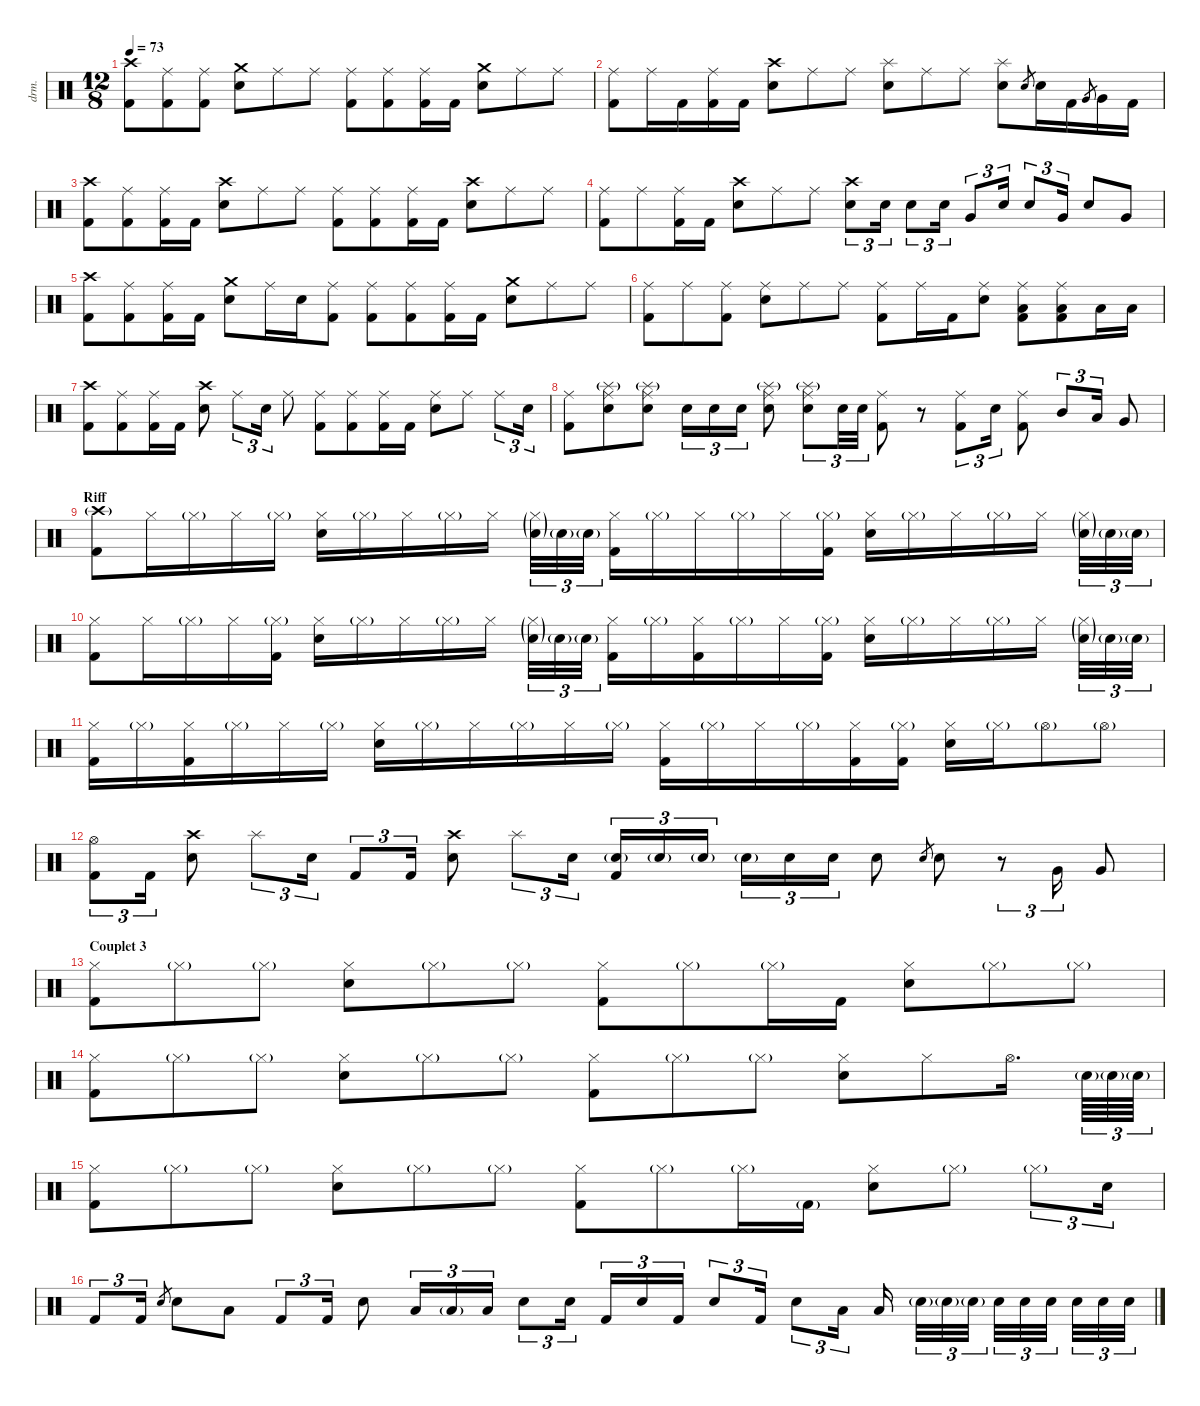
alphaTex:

\defaultSystemsLayout 4
\hideDynamics
\bracketExtendMode nobrackets
\otherSystemsTrackNameOrientation horizontal
\track ("Drums" "drm.") {instrument percussion}
\staff {score}
\articulation defaults
\ts (12 8)
\tempo 73
\clef neutral
\ks c
("Crash high (hit)" "Kick (hit) 2").8{dy f beam Down} ("Ride (middle)" "Kick (hit) 2").8{beam Down} ("Ride (middle)" "Kick (hit) 2").8{beam Down} ("Crash medium (hit)" "Snare (hit) 2").8{beam Down} "Ride (middle)".8{beam Down} "Ride (middle)".8{beam Down} ("Ride (middle)" "Kick (hit) 2").8{beam Down} ("Ride (middle)" "Kick (hit) 2").8{beam Down} ("Ride (middle)" "Kick (hit) 2").16{beam Down} "Kick (hit) 2".16{beam Down} ("Crash medium (hit)" "Snare (hit) 2").8{beam Down} "Ride (middle)".8{beam Down} "Ride (middle)".8{beam Down} |
("Ride (middle)" "Kick (hit) 2").8{beam Down} "Ride (middle)".16{beam Down} "Kick (hit) 2".16{beam Down} ("Ride (middle)" "Kick (hit) 2").16{beam Down} "Kick (hit) 2".16{beam Down} ("Snare (hit) 2" "Crash high (hit)").8{beam Down} "Ride (middle)".8{beam Down} "Ride (middle)".8{beam Down} ("Splash (hit)" "Snare (hit) 2").8{beam Down} "Ride (middle)".8{beam Down} "Ride (middle)".8{beam Down} ("Splash (hit)" "Snare (hit) 2").8{beam Down} "Electric Snare (hit)".8{gr dy mf beam Up} "Snare (hit) 2".16{dy f beam Down} "Kick (hit) 2".16{beam Down} "Very Low Tom (hit)".8{gr dy mf beam Up} "Very Low Tom (hit)".16{dy f beam Down} "Kick (hit) 2".16{beam Down} |
("Crash high (hit)" "Kick (hit) 2").8{beam Down} ("Ride (middle)" "Kick (hit) 2").8{beam Down} ("Ride (middle)" "Kick (hit) 2").16{beam Down} "Kick (hit) 2".16{beam Down} ("Snare (hit) 2" "Crash high (hit)").8{beam Down} "Ride (middle)".8{beam Down} "Ride (middle)".8{beam Down} ("Ride (middle)" "Kick (hit) 2").8{beam Down} ("Ride (middle)" "Kick (hit) 2").8{beam Down} ("Ride (middle)" "Kick (hit) 2").16{beam Down} "Kick (hit) 2".16{beam Down} ("Snare (hit) 2" "Crash high (hit)").8{beam Down} "Ride (middle)".8{beam Down} "Ride (middle)".8{beam Down} |
("Ride (middle)" "Kick (hit) 2").8{beam Down} "Ride (middle)".8{beam Down} ("Ride (middle)" "Kick (hit) 2").16{beam Down} "Kick (hit) 2".16{beam Down} ("Snare (hit) 2" "Crash high (hit)").8{beam Down} "Ride (middle)".8{beam Down} "Ride (middle)".8{beam Down} ("Snare (hit) 2" "Crash high (hit)").8{tu (3 2) beam Down} "Snare (hit) 2".16{tu (3 2) beam Down} "Snare (hit) 2".8{tu (3 2) beam Down} "Snare (hit) 2".16{tu (3 2) beam Down} "Very Low Tom (hit)".8{tu (3 2) beam Up} "Snare (hit) 2".16{tu (3 2) beam Up} "Snare (hit) 2".8{tu (3 2) beam Up} "Very Low Tom (hit)".16{tu (3 2) beam Up} "Snare (hit) 2".8{beam Up} "Very Low Tom (hit)".8{beam Up} |
("Crash high (hit)" "Kick (hit) 2").8{beam Down} ("Ride (middle)" "Kick (hit) 2").8{beam Down} ("Ride (middle)" "Kick (hit) 2").16{beam Down} "Kick (hit) 2".16{beam Down} ("Crash medium (hit)" "Snare (hit) 2").8{beam Down} "Ride (middle)".16{beam Down} "Snare (hit) 2".16{beam Down} ("Ride (middle)" "Kick (hit) 2").8{beam Down} ("Ride (middle)" "Kick (hit) 2").8{beam Down} ("Ride (middle)" "Kick (hit) 2").8{beam Down} ("Ride (middle)" "Kick (hit) 2").16{beam Down} "Kick (hit) 2".16{beam Down} ("Crash medium (hit)" "Snare (hit) 2").8{beam Down} "Ride (middle)".8{beam Down} "Ride (middle)".8{beam Down} |
("Ride (middle)" "Kick (hit) 2").8{beam Down} "Ride (middle)".8{beam Down} ("Ride (middle)" "Kick (hit) 2").8{beam Down} ("Snare (hit) 2" "Ride (middle)").8{beam Down} "Ride (middle)".8{beam Down} "Ride (middle)".8{beam Down} ("Ride (middle)" "Kick (hit) 2").8{beam Down} "Ride (middle)".16{beam Down} "Kick (hit) 2".16{beam Down} ("Snare (hit) 2" "Ride (middle)").8{beam Down} ("Low Tom (hit)" "Ride (middle)" "Kick (hit) 2").8{beam Down} ("Low Tom (hit)" "Ride (middle)" "Kick (hit) 2").8{beam Down} "Low Tom (hit)".16{beam Down} "Low Tom (hit)".16{beam Down} |
("Crash high (hit)" "Kick (hit) 2").8{beam Down} ("Ride (middle)" "Kick (hit) 2").8{beam Down} ("Ride (middle)" "Kick (hit) 2").16{beam Down} "Kick (hit) 2".16{beam Down} ("Snare (hit) 2" "Crash high (hit)").8{beam Down} "Ride (middle)".8{tu (3 2) beam Down} "Snare (hit) 2".16{tu (3 2) beam Down} "Ride (middle)".8{beam Down} ("Ride (middle)" "Kick (hit) 2").8{beam Down} ("Ride (middle)" "Kick (hit) 2").8{beam Down} ("Ride (middle)" "Kick (hit) 2").16{beam Down} "Kick (hit) 2".16{beam Down} ("Snare (hit) 2" "Ride (middle)").8{beam Down} "Ride (middle)".8{beam Down} "Ride (middle)".8{tu (3 2) beam Down} "Snare (hit) 2".16{tu (3 2) beam Down} |
("Ride (middle)" "Kick (hit) 2").8{beam Down} ("Snare (hit) 2" "Ride (middle)" "Splash (hit)"{g}).8{beam Down} ("Snare (hit) 2" "Ride (middle)" "Splash (hit)"{g}).8{beam Down} "Snare (hit) 2".16{tu (3 2) beam Down} "Snare (hit) 2".16{tu (3 2) beam Down} "Snare (hit) 2".16{tu (3 2) beam Down} ("Snare (hit) 2" "Ride (middle)" "Splash (hit)"{g}).8{beam Down} ("Snare (hit) 2" "Ride (middle)" "Splash (hit)"{g}).8{tu (3 2) beam Down} "Snare (hit) 2".32{tu (3 2) beam Down} "Snare (hit) 2".32{tu (3 2) beam Down} ("Ride (middle)" "Kick (hit) 2").8{beam Down} r.8{beam Down} ("Ride (middle)" "Kick (hit) 2").8{tu (3 2) beam Down} "Snare (hit) 2".16{tu (3 2) beam Down} ("Ride (middle)" "Kick (hit) 2").8{beam Down} "Mid Tom (hit)".8{tu (3 2) beam Up} "Low Tom (hit)".16{tu (3 2) beam Up} "Very Low Tom (hit)".8{beam Up} |
\section ("" "Riff")
("Crash high (hit)"{g} "Kick (hit) 2").8{beam Down} "Hi-Hat (closed)".16{beam Down} "Hi-Hat (closed)"{g}.16{beam Down} "Hi-Hat (closed)".16{beam Down} "Hi-Hat (closed)"{g}.16{beam Down} ("Hi-Hat (closed)" "Snare (hit) 2").16{beam Down} "Hi-Hat (closed)"{g}.16{beam Down} "Hi-Hat (closed)".16{beam Down} "Hi-Hat (closed)"{g}.16{beam Down} "Hi-Hat (closed)".16{beam Down} ("Hi-Hat (closed)"{g} "Snare (hit) 2"{g}).32{tu (3 2) beam Down} "Snare (hit) 2"{g}.32{tu (3 2) beam Down} "Snare (hit) 2"{g}.32{tu (3 2) beam Down} ("Hi-Hat (closed)" "Kick (hit) 2").16{beam Down} "Hi-Hat (closed)"{g}.16{beam Down} "Hi-Hat (closed)".16{beam Down} "Hi-Hat (closed)"{g}.16{beam Down} "Hi-Hat (closed)".16{beam Down} ("Hi-Hat (closed)"{g} "Kick (hit) 2").16{beam Down} ("Hi-Hat (closed)" "Snare (hit) 2").16{beam Down} "Hi-Hat (closed)"{g}.16{beam Down} "Hi-Hat (closed)".16{beam Down} "Hi-Hat (closed)"{g}.16{beam Down} "Hi-Hat (closed)".16{beam Down} ("Hi-Hat (closed)"{g} "Snare (hit) 2"{g}).32{tu (3 2) beam Down} "Snare (hit) 2"{g}.32{tu (3 2) beam Down} "Snare (hit) 2"{g}.32{tu (3 2) beam Down} |
("Hi-Hat (closed)" "Kick (hit) 2").8{beam Down} "Hi-Hat (closed)".16{beam Down} "Hi-Hat (closed)"{g}.16{beam Down} "Hi-Hat (closed)".16{beam Down} ("Hi-Hat (closed)"{g} "Kick (hit) 2").16{beam Down} ("Hi-Hat (closed)" "Snare (hit) 2").16{beam Down} "Hi-Hat (closed)"{g}.16{beam Down} "Hi-Hat (closed)".16{beam Down} "Hi-Hat (closed)"{g}.16{beam Down} "Hi-Hat (closed)".16{beam Down} ("Hi-Hat (closed)"{g} "Snare (hit) 2"{g}).32{tu (3 2) beam Down} "Snare (hit) 2"{g}.32{tu (3 2) beam Down} "Snare (hit) 2"{g}.32{tu (3 2) beam Down} ("Hi-Hat (closed)" "Kick (hit) 2").16{beam Down} "Hi-Hat (closed)"{g}.16{beam Down} ("Hi-Hat (closed)" "Kick (hit) 2").16{beam Down} "Hi-Hat (closed)"{g}.16{beam Down} "Hi-Hat (closed)".16{beam Down} ("Hi-Hat (closed)"{g} "Kick (hit) 2").16{beam Down} ("Hi-Hat (closed)" "Snare (hit) 2").16{beam Down} "Hi-Hat (closed)"{g}.16{beam Down} "Hi-Hat (closed)".16{beam Down} "Hi-Hat (closed)"{g}.16{beam Down} "Hi-Hat (closed)".16{beam Down} ("Hi-Hat (closed)"{g} "Snare (hit) 2"{g}).32{tu (3 2) beam Down} "Snare (hit) 2"{g}.32{tu (3 2) beam Down} "Snare (hit) 2"{g}.32{tu (3 2) beam Down} |
("Hi-Hat (closed)" "Kick (hit) 2").16{beam Down} "Hi-Hat (closed)"{g}.16{beam Down} ("Hi-Hat (closed)" "Kick (hit) 2").16{beam Down} "Hi-Hat (closed)"{g}.16{beam Down} "Hi-Hat (closed)".16{beam Down} "Hi-Hat (closed)"{g}.16{beam Down} ("Hi-Hat (closed)" "Snare (hit) 2").16{beam Down} "Hi-Hat (closed)"{g}.16{beam Down} "Hi-Hat (closed)".16{beam Down} "Hi-Hat (closed)"{g}.16{beam Down} "Hi-Hat (closed)".16{beam Down} "Hi-Hat (closed)"{g}.16{beam Down} ("Hi-Hat (closed)" "Kick (hit) 2").16{beam Down} "Hi-Hat (closed)"{g}.16{beam Down} "Hi-Hat (closed)".16{beam Down} "Hi-Hat (closed)"{g}.16{beam Down} ("Hi-Hat (closed)" "Kick (hit) 2").16{beam Down} ("Hi-Hat (closed)"{g} "Kick (hit) 2").16{beam Down} ("Hi-Hat (closed)" "Snare (hit) 2").16{beam Down} "Hi-Hat (closed)"{g}.16{beam Down} "Hi-Hat (open)"{g}.8{beam Down} "Hi-Hat (open)"{g}.8{beam Down} |
("Hi-Hat (open)" "Kick (hit) 2").8{tu (3 2) beam Down} "Kick (hit) 2".16{tu (3 2) beam Down} ("Crash high (hit)" "Snare (hit) 2").8{beam Down} "Splash (hit)".8{tu (3 2) beam Down} "Snare (hit) 2".16{tu (3 2) beam Down} "Kick (hit) 2".8{tu (3 2) beam Up} "Kick (hit) 2".16{tu (3 2) beam Up} ("Crash high (hit)" "Snare (hit) 2").8{beam Down} "Splash (hit)".8{tu (3 2) beam Down} "Snare (hit) 2".16{tu (3 2) beam Down} ("Snare (hit) 2"{g} "Kick (hit) 2").16{tu (3 2) beam Up} "Snare (hit) 2"{g}.16{tu (3 2) dy mf beam Up} "Snare (hit) 2"{g}.16{tu (3 2) dy f beam Up} "Snare (hit) 2"{g}.16{tu (3 2) beam Down} "Snare (hit) 2".16{tu (3 2) dy mf beam Down} "Snare (hit) 2".16{tu (3 2) dy f beam Down} "Snare (hit) 2".8{beam Down} "Electric Snare (hit)".8{gr dy mf beam Up} "Snare (hit) 2".8{dy f beam Down} r.8{tu (3 2) beam Down} "Very Low Tom (hit)".16{tu (3 2) beam Up} "Very Low Tom (hit)".8{beam Up} |
\section ("" "Couplet 3")
("Hi-Hat (closed)" "Kick (hit) 2").8{beam Down} "Hi-Hat (closed)"{g}.8{beam Down} "Hi-Hat (closed)"{g}.8{beam Down} ("Hi-Hat (closed)" "Snare (hit) 2").8{beam Down} "Hi-Hat (closed)"{g}.8{beam Down} "Hi-Hat (closed)"{g}.8{beam Down} ("Hi-Hat (closed)" "Kick (hit) 2").8{beam Down} "Hi-Hat (closed)"{g}.8{beam Down} "Hi-Hat (closed)"{g}.16{beam Down} "Kick (hit) 2".16{beam Down} ("Hi-Hat (closed)" "Snare (hit) 2").8{beam Down} "Hi-Hat (closed)"{g}.8{beam Down} "Hi-Hat (closed)"{g}.8{beam Down} |
("Hi-Hat (closed)" "Kick (hit) 2").8{beam Down} "Hi-Hat (closed)"{g}.8{beam Down} "Hi-Hat (closed)"{g}.8{beam Down} ("Hi-Hat (closed)" "Snare (hit) 2").8{beam Down} "Hi-Hat (closed)"{g}.8{beam Down} "Hi-Hat (closed)"{g}.8{beam Down} ("Hi-Hat (closed)" "Kick (hit) 2").8{beam Down} "Hi-Hat (closed)"{g}.8{beam Down} "Hi-Hat (closed)"{g}.8{beam Down} ("Hi-Hat (closed)" "Snare (hit) 2").8{beam Down} "Hi-Hat (closed)".8{beam Down} "Hi-Hat (open)".16{d beam Down} "Snare (hit) 2"{g}.64{tu (3 2) beam Down} "Snare (hit) 2"{g}.64{tu (3 2) beam Down} "Snare (hit) 2"{g}.64{tu (3 2) beam Down} |
("Hi-Hat (closed)" "Kick (hit) 2").8{beam Down} "Hi-Hat (closed)"{g}.8{beam Down} "Hi-Hat (closed)"{g}.8{beam Down} ("Hi-Hat (closed)" "Snare (hit) 2").8{beam Down} "Hi-Hat (closed)"{g}.8{beam Down} "Hi-Hat (closed)"{g}.8{beam Down} ("Hi-Hat (closed)" "Kick (hit) 2").8{beam Down} "Hi-Hat (closed)"{g}.8{beam Down} "Hi-Hat (closed)"{g}.16{beam Down} "Kick (hit) 2"{g}.16{beam Down} ("Hi-Hat (closed)" "Snare (hit) 2").8{beam Down} "Hi-Hat (closed)"{g}.8{beam Down} "Hi-Hat (closed)"{g}.8{tu (3 2) beam Down} "Snare (hit) 2".16{tu (3 2) beam Down} |
"Kick (hit) 2".8{tu (3 2) beam Up} "Kick (hit) 2".16{tu (3 2) beam Up} "Electric Snare (hit)".8{gr dy mf beam Up} "Snare (hit) 2".8{dy f beam Down} "Low Tom (hit)".8{beam Down} "Kick (hit) 2".8{tu (3 2) beam Up} "Kick (hit) 2".16{tu (3 2) beam Up} "Snare (hit) 2".8{beam Down} "Low Tom (hit)".16{tu (3 2) beam Up} "Low Tom (hit)"{g}.16{tu (3 2) beam Up} "Low Tom (hit)".16{tu (3 2) beam Up} "Snare (hit) 2".8{tu (3 2) beam Down} "Snare (hit) 2".16{tu (3 2) beam Down} "Kick (hit) 2".16{tu (3 2) beam Up} "Snare (hit) 2".16{tu (3 2) beam Up} "Kick (hit) 2".16{tu (3 2) beam Up} "Snare (hit) 2".8{tu (3 2) beam Up} "Kick (hit) 2".16{tu (3 2) beam Up} "Snare (hit) 2".8{tu (3 2) beam Down} "Low Tom (hit)".16{tu (3 2) beam Down} "Low Tom (hit)".16{beam Up} "Snare (hit) 2"{g}.32{tu (3 2) dy mf beam Down} "Snare (hit) 2"{g}.32{tu (3 2) dy f beam Down} "Snare (hit) 2"{g}.32{tu (3 2) beam Down} "Snare (hit) 2".32{tu (3 2) dy mp beam Down} "Snare (hit) 2".32{tu (3 2) dy mf beam Down} "Snare (hit) 2".32{tu (3 2) beam Down} "Snare (hit) 2".32{tu (3 2) beam Down} "Snare (hit) 2".32{tu (3 2) dy f beam Down} "Snare (hit) 2".32{tu (3 2) beam Down}
